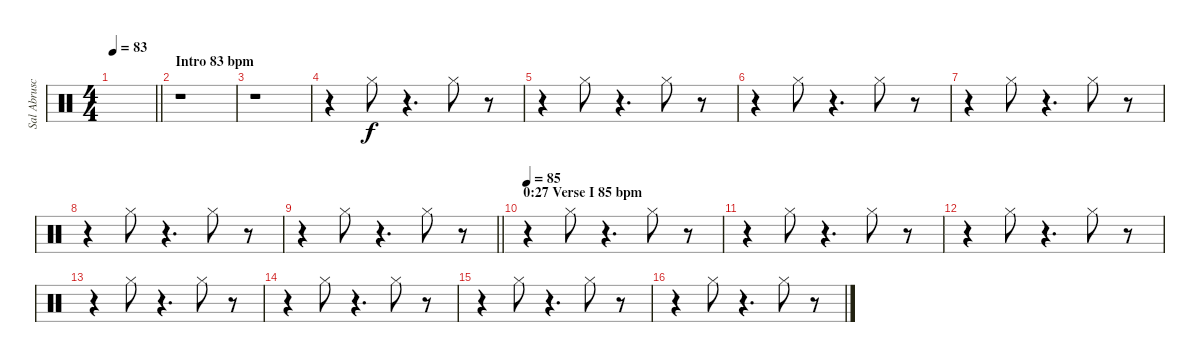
\track ("Sal Abruscato (Drums)" "Sal Abrusc") {instrument percussion}
\staff {score}
\articulation defaults
\ts (4 4)
\tempo 83
\clef neutral
\barLineRight lightlight
\ks c
|
\section ("" "Intro 83 bpm")
r.1 |
r.1 |
r.4 "Hi-Hat (closed)".8 r.4{d} "Hi-Hat (closed)".8 r.8 |
r.4 "Hi-Hat (closed)".8 r.4{d} "Hi-Hat (closed)".8 r.8 |
r.4 "Hi-Hat (closed)".8 r.4{d} "Hi-Hat (closed)".8 r.8 |
r.4 "Hi-Hat (closed)".8 r.4{d} "Hi-Hat (closed)".8 r.8 |
r.4 "Hi-Hat (closed)".8 r.4{d} "Hi-Hat (closed)".8 r.8 |
\barLineRight lightlight
r.4 "Hi-Hat (closed)".8 r.4{d} "Hi-Hat (closed)".8 r.8 |
\section ("" "0:27 Verse I 85 bpm")
\tempo 85
r.4 "Hi-Hat (closed)".8 r.4{d} "Hi-Hat (closed)".8 r.8 |
r.4 "Hi-Hat (closed)".8 r.4{d} "Hi-Hat (closed)".8 r.8 |
r.4 "Hi-Hat (closed)".8 r.4{d} "Hi-Hat (closed)".8 r.8 |
r.4 "Hi-Hat (closed)".8 r.4{d} "Hi-Hat (closed)".8 r.8 |
r.4 "Hi-Hat (closed)".8 r.4{d} "Hi-Hat (closed)".8 r.8 |
r.4 "Hi-Hat (closed)".8 r.4{d} "Hi-Hat (closed)".8 r.8 |
r.4 "Hi-Hat (closed)".8 r.4{d} "Hi-Hat (closed)".8 r.8
